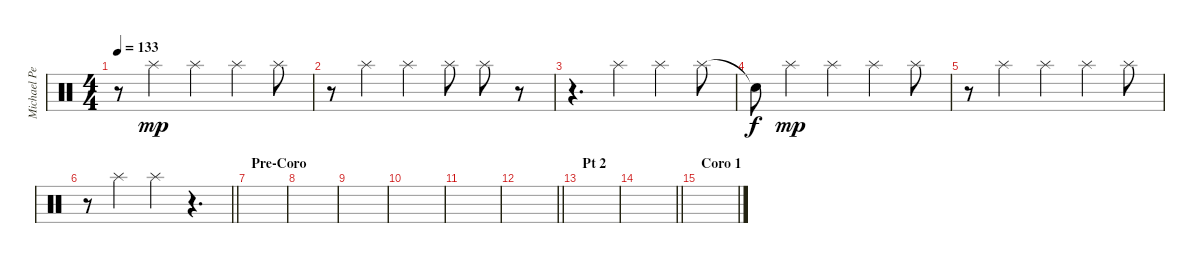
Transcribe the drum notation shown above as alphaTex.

\track ("Michael Pedicone [Drums Overdubbed]" "Michael Pe") {instrument percussion}
\staff
\articulation defaults
\ts (4 4)
\tempo 133
\clef neutral
\ks c
r.8{dy mp} "Splash (hit)".4 "Splash (hit)".4 "Splash (hit)".4 "Splash (hit)".8 |
r.8 "Splash (hit)".4 "Splash (hit)".4 "Splash (hit)".8 "Splash (hit)".8 r.8 |
r.4{d} "Splash (hit)".4 "Splash (hit)".4 "Splash (hit)".8 |
"Snare (hit)"{t}.8{dy f} "Splash (hit)".4{dy mp} "Splash (hit)".4 "Splash (hit)".4 "Splash (hit)".8 |
r.8 "Splash (hit)".4 "Splash (hit)".4 "Splash (hit)".4 "Splash (hit)".8 |
\barLineRight lightlight
r.8 "Splash (hit)".4 "Splash (hit)".4 r.4{d} |
\section ("" "Pre-Coro")
|
|
|
|
|
\barLineRight lightlight
|
\section ("" "Pt 2")
|
\barLineRight lightlight
|
\section ("" "Coro 1")
